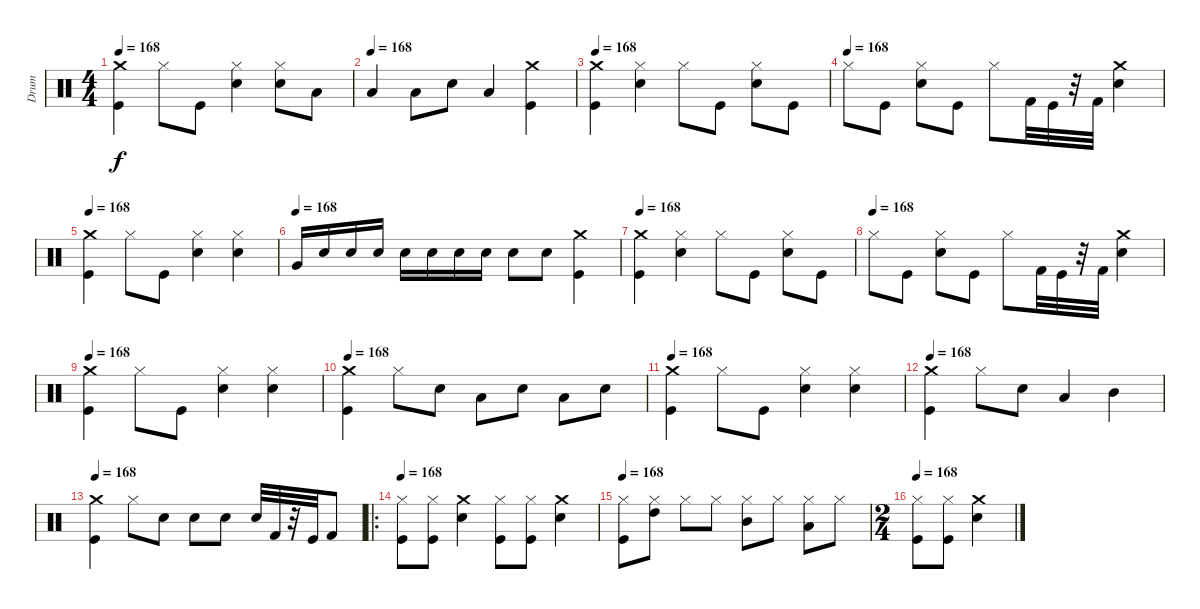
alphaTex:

\track ("Drum" "Drum") {instrument percussion}
\staff {score}
\articulation defaults
\ts (4 4)
\tempo 168
\clef neutral
\ks c
("Crash medium (hit)" "Kick (hit)").4{dy f} "Hi-Hat (closed)".8 "Kick (hit)".8 ("Hi-Hat (closed)" "Snare (hit) 2").4 ("Hi-Hat (closed)" "Snare (hit) 2").8 "Low Tom (hit)".8 |
\tempo (168)
"Low Tom (hit)".4 "Low Tom (hit)".8 "Snare (hit) 2".8 "Low Tom (hit)".4 ("Crash medium (hit)" "Kick (hit)").4 |
\tempo 168
("Crash medium (hit)" "Kick (hit)").4 ("Hi-Hat (closed)" "Snare (hit) 2").4 "Hi-Hat (closed)".8 "Kick (hit)".8 ("Hi-Hat (closed)" "Snare (hit) 2").8 "Kick (hit)".8 |
\tempo (168)
"Hi-Hat (closed)".8 "Kick (hit)".8 ("Hi-Hat (closed)" "Snare (hit) 2").8 "Kick (hit)".8 "Hi-Hat (closed)".8 "Kick (hit) 2".32 "Kick (hit)".32 r.32 "Kick (hit) 2".32 ("Crash medium (hit)" "Snare (hit) 2").4 |
\tempo 168
("Crash medium (hit)" "Kick (hit)").4 "Hi-Hat (closed)".8 "Kick (hit)".8 ("Hi-Hat (closed)" "Snare (hit) 2").4 ("Hi-Hat (closed)" "Snare (hit) 2").4 |
\tempo (168)
"Very Low Tom (hit)".16 "Snare (hit) 2".16 "Snare (hit) 2".16 "Snare (hit) 2".16 "Snare (hit) 2".16 "Snare (hit) 2".16 "Snare (hit) 2".16 "Snare (hit) 2".16 "Snare (hit) 2".8 "Snare (hit) 2".8 ("Crash medium (hit)" "Kick (hit)").4 |
\tempo 168
("Crash medium (hit)" "Kick (hit)").4 ("Hi-Hat (closed)" "Snare (hit) 2").4 "Hi-Hat (closed)".8 "Kick (hit)".8 ("Hi-Hat (closed)" "Snare (hit) 2").8 "Kick (hit)".8 |
\tempo (168)
"Hi-Hat (closed)".8 "Kick (hit)".8 ("Hi-Hat (closed)" "Snare (hit) 2").8 "Kick (hit)".8 "Hi-Hat (closed)".8 "Kick (hit) 2".32 "Kick (hit)".32 r.32 "Kick (hit) 2".32 ("Crash medium (hit)" "Snare (hit) 2").4 |
\tempo 168
("Crash medium (hit)" "Kick (hit)").4 "Hi-Hat (closed)".8 "Kick (hit)".8 ("Hi-Hat (closed)" "Snare (hit) 2").4 ("Hi-Hat (closed)" "Snare (hit) 2").4 |
\tempo 168
("Crash medium (hit)" "Kick (hit)").4 "Hi-Hat (closed)".8 "Snare (hit) 2".8 "Low Tom (hit)".8 "Snare (hit) 2".8 "Low Tom (hit)".8 "Snare (hit) 2".8 |
\tempo 168
("Crash medium (hit)" "Kick (hit)").4 "Hi-Hat (closed)".8 "Kick (hit)".8 ("Hi-Hat (closed)" "Snare (hit) 2").4 ("Hi-Hat (closed)" "Snare (hit) 2").4 |
\tempo 168
("Crash medium (hit)" "Kick (hit)").4 "Hi-Hat (closed)".8 "Snare (hit) 2".8 "Low Tom (hit)".4 "Mid Tom (hit)".4 |
\tempo 168
("Crash medium (hit)" "Kick (hit)").4 "Hi-Hat (closed)".8 "Snare (hit) 2".8 "Snare (hit) 2".8 "Snare (hit) 2".8 "Snare (hit) 2".32 "Kick (hit) 2".32 r.32 "Kick (hit)".32 "Kick (hit) 2".8 |
\ro
\tempo 168
("Hi-Hat (closed)" "Kick (hit)").8 ("Hi-Hat (closed)" "Kick (hit)").8 ("Crash medium (hit)" "Snare (hit) 2").4 ("Hi-Hat (closed)" "Kick (hit)").8 ("Hi-Hat (closed)" "Kick (hit)").8 ("Crash medium (hit)" "Snare (hit) 2").4 |
\tempo 168
("Hi-Hat (closed)" "Kick (hit)").8 ("Hi-Hat (closed)" "High Tom (hit)").8 "Hi-Hat (closed)".8 "Hi-Hat (closed)".8 ("Hi-Hat (closed)" "Mid Tom (hit)").8 "Hi-Hat (closed)".8 ("Hi-Hat (closed)" "Low Tom (hit)").8 "Hi-Hat (closed)".8 |
\ts (2 4)
\tempo 168
("Hi-Hat (closed)" "Kick (hit)").8 ("Hi-Hat (closed)" "Kick (hit)").8 ("Crash medium (hit)" "Snare (hit) 2").4
